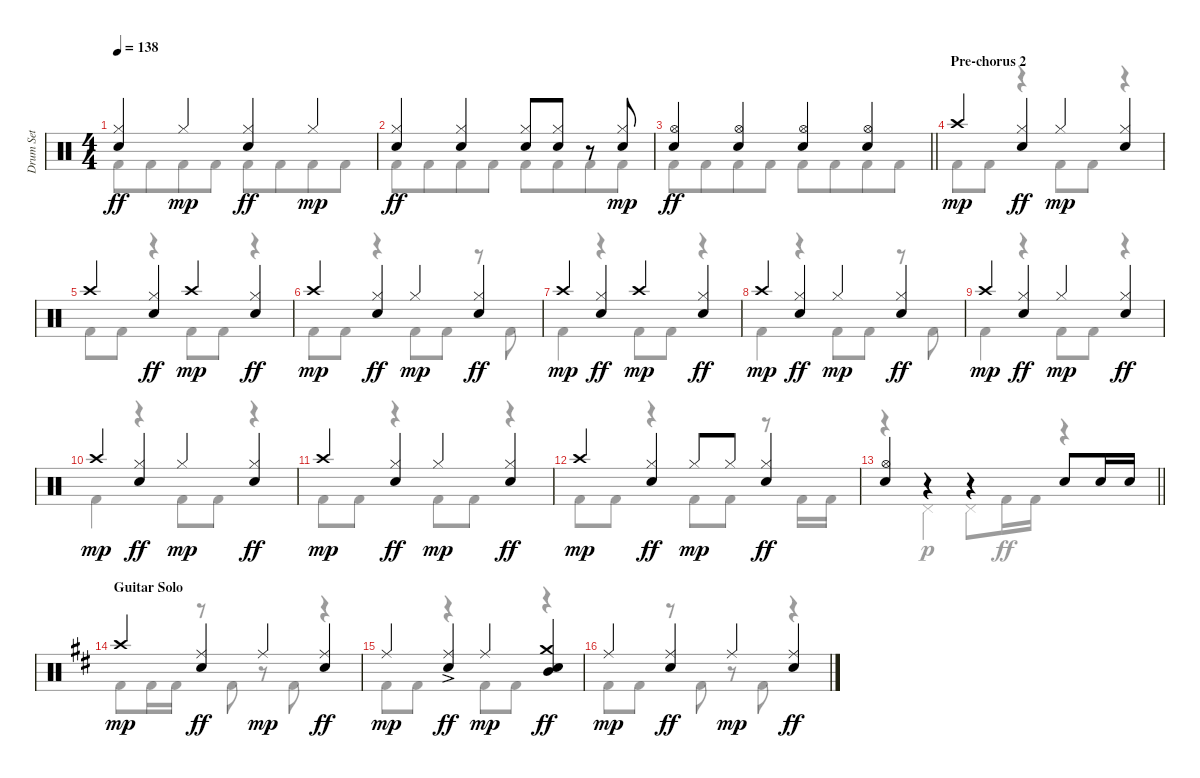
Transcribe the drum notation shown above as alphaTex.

\track ("Drum Set" "Drum Set") {instrument percussion}
\staff {score}
\articulation defaults
\voice
\ts (4 4)
\tempo 138
\clef neutral
\ks c
("Hi-Hat (closed)" "Electric Snare (hit)").4{dy ff} "Hi-Hat (closed)".4{dy mp} ("Hi-Hat (closed)" "Electric Snare (hit)").4{dy ff} "Hi-Hat (closed)".4{dy mp} |
("Hi-Hat (closed)" "Electric Snare (hit)").4{dy ff} ("Hi-Hat (closed)" "Electric Snare (hit)").4 ("Hi-Hat (closed)" "Electric Snare (hit)").8 ("Hi-Hat (closed)" "Electric Snare (hit)").8 r.8 ("Electric Snare (hit)" "Hi-Hat (closed)").8{dy mp} |
\barLineRight lightlight
("Hi-Hat (open)" "Electric Snare (hit)").4{dy ff} ("Hi-Hat (open)" "Electric Snare (hit)").4 ("Hi-Hat (open)" "Electric Snare (hit)").4 ("Hi-Hat (open)" "Electric Snare (hit)").4 |
\section ("" "Pre-chorus 2")
"Crash high (hit)".4{dy mp} ("Hi-Hat (closed)" "Electric Snare (hit)").4{dy ff} "Hi-Hat (closed)".4{dy mp} ("Electric Snare (hit)" "Hi-Hat (closed)").4 |
"Crash high (hit)".4 ("Hi-Hat (closed)" "Electric Snare (hit)").4{dy ff} "Crash high (hit)".4{dy mp} ("Hi-Hat (closed)" "Electric Snare (hit)").4{dy ff} |
"Crash high (hit)".4{dy mp} ("Hi-Hat (closed)" "Electric Snare (hit)").4{dy ff} "Hi-Hat (closed)".4{dy mp} ("Hi-Hat (closed)" "Electric Snare (hit)").4{dy ff} |
"Crash high (hit)".4{dy mp} ("Hi-Hat (closed)" "Electric Snare (hit)").4{dy ff} "Crash high (hit)".4{dy mp} ("Hi-Hat (closed)" "Electric Snare (hit)").4{dy ff} |
"Crash high (hit)".4{dy mp} ("Hi-Hat (closed)" "Electric Snare (hit)").4{dy ff} "Hi-Hat (closed)".4{dy mp} ("Hi-Hat (closed)" "Electric Snare (hit)").4{dy ff} |
"Crash high (hit)".4{dy mp} ("Hi-Hat (closed)" "Electric Snare (hit)").4{dy ff} "Hi-Hat (closed)".4{dy mp} ("Hi-Hat (closed)" "Electric Snare (hit)").4{dy ff} |
"Crash high (hit)".4{dy mp} ("Hi-Hat (closed)" "Electric Snare (hit)").4{dy ff} "Hi-Hat (closed)".4{dy mp} ("Hi-Hat (closed)" "Electric Snare (hit)").4{dy ff} |
"Crash high (hit)".4{dy mp} ("Hi-Hat (closed)" "Electric Snare (hit)").4{dy ff} "Hi-Hat (closed)".4{dy mp} ("Hi-Hat (closed)" "Electric Snare (hit)").4{dy ff} |
"Crash high (hit)".4{dy mp} ("Hi-Hat (closed)" "Electric Snare (hit)").4{dy ff} "Hi-Hat (closed)".8{dy mp} "Hi-Hat (closed)".8 ("Hi-Hat (closed)" "Electric Snare (hit)").4{dy ff} |
\barLineRight lightlight
("Hi-Hat (open)" "Electric Snare (hit)").4 r.4 r.4 "Electric Snare (hit)".8 "Electric Snare (hit)".16 "Electric Snare (hit)".16 |
\section ("" "Guitar Solo")
\ks d "Crash high (hit)".4{dy mp}
("Ride (middle)" "Electric Snare (hit)").4{dy ff} "Ride (middle)".4{dy mp} ("Ride (middle)" "Electric Snare (hit)").4{dy ff} |
"Ride (middle)".4{dy mp} ("Ride (middle)"{ac} "Electric Snare (hit)").4{dy ff} "Ride (middle)".4{dy mp} ("Crash medium (hit)" "Electric Snare (hit)" "Mid Tom (hit)").4{dy ff} |
"Ride (middle)".4{dy mp} ("Ride (middle)" "Electric Snare (hit)").4{dy ff} "Ride (middle)".4{dy mp} ("Ride (middle)" "Electric Snare (hit)").4{dy ff}
\voice
\clef neutral
\ottava regular
\simile none
\ks c "Kick (hit) 2".8{dy ff} "Kick (hit) 2".8{beam merge} "Kick (hit) 2".8 "Kick (hit) 2".8 "Kick (hit) 2".8 "Kick (hit) 2".8{beam merge} "Kick (hit) 2".8 "Kick (hit) 2".8
|
"Kick (hit) 2".8 "Kick (hit) 2".8{beam merge} "Kick (hit) 2".8 "Kick (hit) 2".8 "Kick (hit) 2".8 "Kick (hit) 2".8{beam merge} "Kick (hit) 2".8 "Kick (hit) 2".8 |
\barLineRight lightlight "Kick (hit) 2".8 "Kick (hit) 2".8{beam merge} "Kick (hit) 2".8 "Kick (hit) 2".8 "Kick (hit) 2".8 "Kick (hit) 2".8{beam merge} "Kick (hit) 2".8 "Kick (hit) 2".8
|
"Kick (hit) 2".8 "Kick (hit) 2".8 r.4 "Kick (hit) 2".8 "Kick (hit) 2".8 r.4 |
"Kick (hit) 2".8 "Kick (hit) 2".8 r.4 "Kick (hit) 2".8 "Kick (hit) 2".8 r.4 |
"Kick (hit) 2".8 "Kick (hit) 2".8 r.4 "Kick (hit) 2".8 "Kick (hit) 2".8 r.8 "Kick (hit) 2".8 |
"Kick (hit) 2".4 r.4 "Kick (hit) 2".8 "Kick (hit) 2".8 r.4 |
"Kick (hit) 2".4 r.4 "Kick (hit) 2".8 "Kick (hit) 2".8 r.8 "Kick (hit) 2".8 |
"Kick (hit) 2".4 r.4 "Kick (hit) 2".8 "Kick (hit) 2".8 r.4 |
"Kick (hit) 2".4 r.4 "Kick (hit) 2".8 "Kick (hit) 2".8 r.4 |
"Kick (hit) 2".8 "Kick (hit) 2".8 r.4 "Kick (hit) 2".8 "Kick (hit) 2".8 r.4 |
"Kick (hit) 2".8 "Kick (hit) 2".8 r.4 "Kick (hit) 2".8 "Kick (hit) 2".8 r.8 "Kick (hit) 2".16 "Kick (hit) 2".16 |
\barLineRight lightlight
r.4 "Pedal Hi-Hat (hit)".4{dy p} "Pedal Hi-Hat (hit)".8 "Kick (hit) 2".16{dy ff} "Kick (hit) 2".16 r.4 |
\ks d "Kick (hit) 2".8 "Kick (hit) 2".16 "Kick (hit) 2".16
r.8 "Kick (hit) 2".8 r.8 "Kick (hit) 2".8 r.4 |
"Kick (hit) 2".8 "Kick (hit) 2".8 r.4 "Kick (hit) 2".8 "Kick (hit) 2".8 r.4 |
"Kick (hit) 2".8 "Kick (hit) 2".8 r.8 "Kick (hit) 2".8 r.8 "Kick (hit) 2".8 r.4
